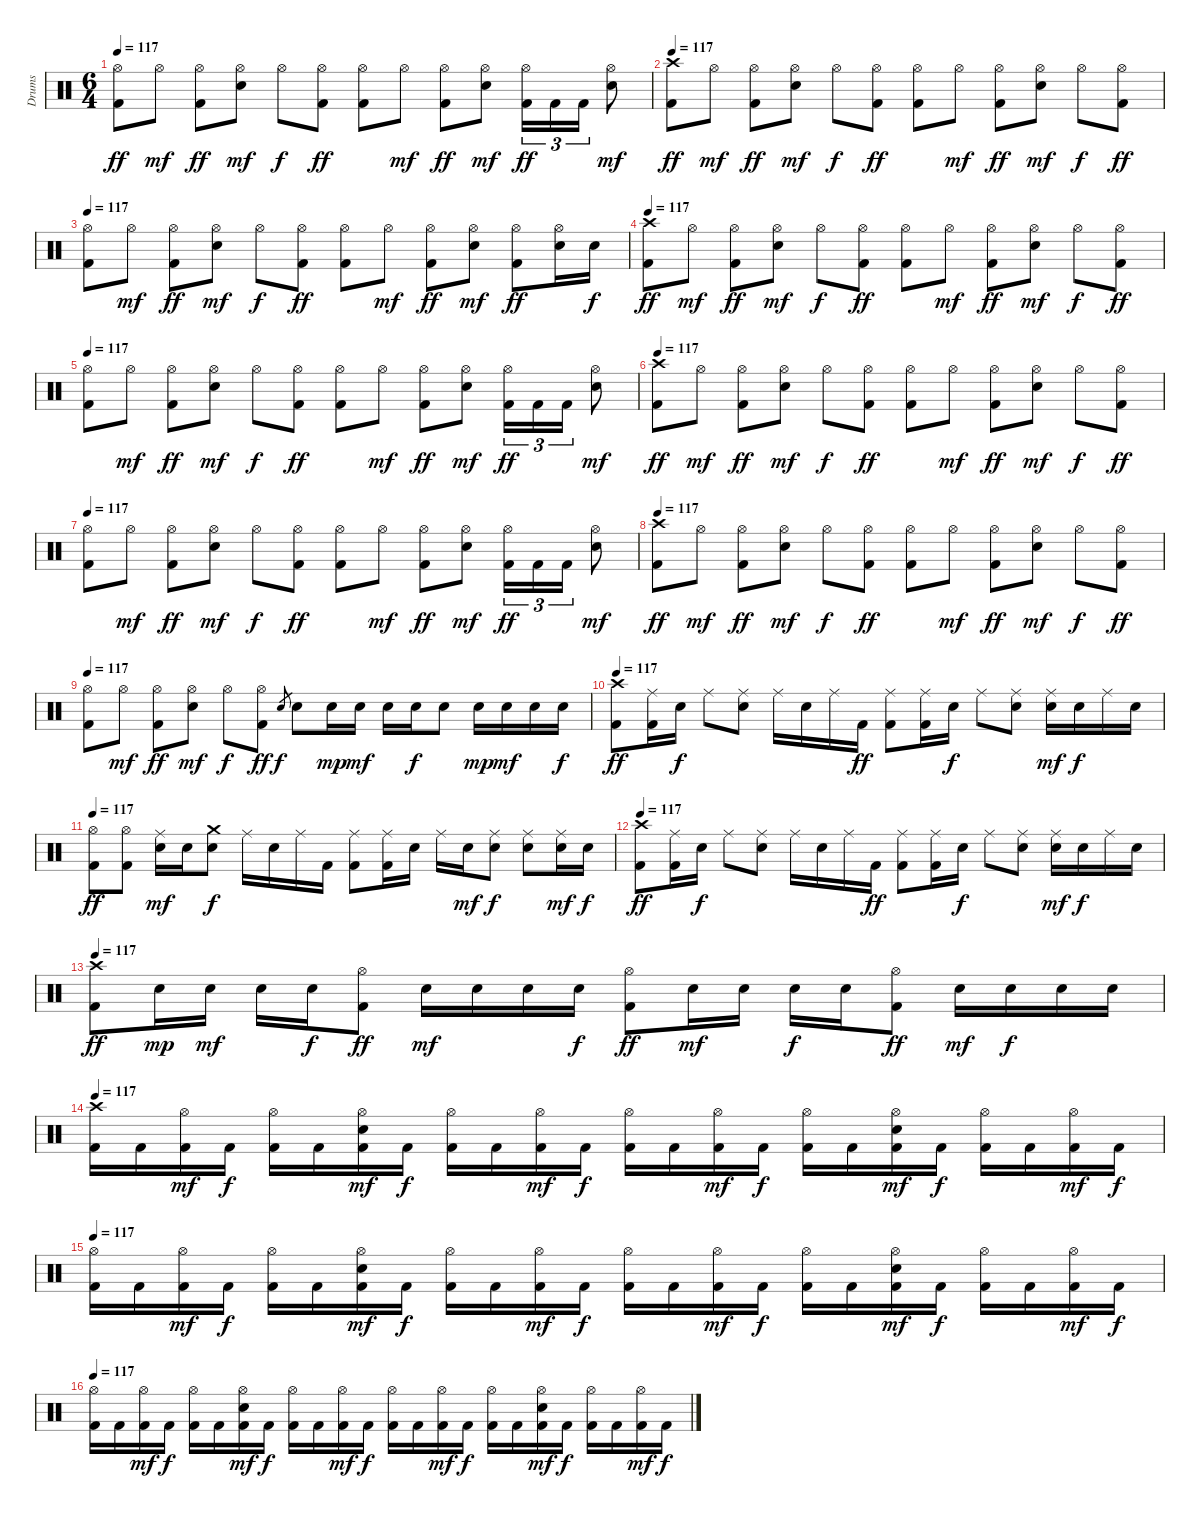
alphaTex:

\track ("Drums" "Drums") {instrument percussion}
\staff {score}
\articulation defaults
\ts (6 4)
\tempo 117
\clef neutral
\ks c
("Hi-Hat (open)" "Kick (hit) 2").8{dy ff} "Hi-Hat (open)".8{dy mf} ("Hi-Hat (open)" "Kick (hit) 2").8{dy ff} ("Hi-Hat (open)" "Electric Snare (hit)").8{dy mf} "Hi-Hat (open)".8{dy f} ("Hi-Hat (open)" "Kick (hit) 2").8{dy ff} ("Hi-Hat (open)" "Kick (hit) 2").8 "Hi-Hat (open)".8{dy mf} ("Hi-Hat (open)" "Kick (hit) 2").8{dy ff} ("Hi-Hat (open)" "Electric Snare (hit)").8{dy mf} ("Hi-Hat (open)" "Kick (hit) 2").16{tu (3 2) dy ff} "Kick (hit) 2".16{tu (3 2)} "Kick (hit) 2".16{tu (3 2)} ("Hi-Hat (open)" "Electric Snare (hit)").8{dy mf} |
\tempo 117
("Crash high (hit)" "Kick (hit) 2").8{dy ff} "Hi-Hat (open)".8{dy mf} ("Hi-Hat (open)" "Kick (hit) 2").8{dy ff} ("Hi-Hat (open)" "Electric Snare (hit)").8{dy mf} "Hi-Hat (open)".8{dy f} ("Hi-Hat (open)" "Kick (hit) 2").8{dy ff} ("Hi-Hat (open)" "Kick (hit) 2").8 "Hi-Hat (open)".8{dy mf} ("Hi-Hat (open)" "Kick (hit) 2").8{dy ff} ("Hi-Hat (open)" "Electric Snare (hit)").8{dy mf} "Hi-Hat (open)".8{dy f} ("Hi-Hat (open)" "Kick (hit) 2").8{dy ff} |
\tempo 117
("Hi-Hat (open)" "Kick (hit) 2").8 "Hi-Hat (open)".8{dy mf} ("Hi-Hat (open)" "Kick (hit) 2").8{dy ff} ("Hi-Hat (open)" "Electric Snare (hit)").8{dy mf} "Hi-Hat (open)".8{dy f} ("Hi-Hat (open)" "Kick (hit) 2").8{dy ff} ("Hi-Hat (open)" "Kick (hit) 2").8 "Hi-Hat (open)".8{dy mf} ("Hi-Hat (open)" "Kick (hit) 2").8{dy ff} ("Hi-Hat (open)" "Electric Snare (hit)").8{dy mf} ("Hi-Hat (open)" "Kick (hit) 2").8{dy ff} ("Hi-Hat (open)" "Electric Snare (hit)").16 "Electric Snare (hit)".16{dy f} |
\tempo 117
("Crash high (hit)" "Kick (hit) 2").8{dy ff} "Hi-Hat (open)".8{dy mf} ("Hi-Hat (open)" "Kick (hit) 2").8{dy ff} ("Hi-Hat (open)" "Electric Snare (hit)").8{dy mf} "Hi-Hat (open)".8{dy f} ("Hi-Hat (open)" "Kick (hit) 2").8{dy ff} ("Hi-Hat (open)" "Kick (hit) 2").8 "Hi-Hat (open)".8{dy mf} ("Hi-Hat (open)" "Kick (hit) 2").8{dy ff} ("Hi-Hat (open)" "Electric Snare (hit)").8{dy mf} "Hi-Hat (open)".8{dy f} ("Hi-Hat (open)" "Kick (hit) 2").8{dy ff} |
\tempo 117
("Hi-Hat (open)" "Kick (hit) 2").8 "Hi-Hat (open)".8{dy mf} ("Hi-Hat (open)" "Kick (hit) 2").8{dy ff} ("Hi-Hat (open)" "Electric Snare (hit)").8{dy mf} "Hi-Hat (open)".8{dy f} ("Hi-Hat (open)" "Kick (hit) 2").8{dy ff} ("Hi-Hat (open)" "Kick (hit) 2").8 "Hi-Hat (open)".8{dy mf} ("Hi-Hat (open)" "Kick (hit) 2").8{dy ff} ("Hi-Hat (open)" "Electric Snare (hit)").8{dy mf} ("Hi-Hat (open)" "Kick (hit) 2").16{tu (3 2) dy ff} "Kick (hit) 2".16{tu (3 2)} "Kick (hit) 2".16{tu (3 2)} ("Hi-Hat (open)" "Electric Snare (hit)").8{dy mf} |
\tempo 117
("Crash high (hit)" "Kick (hit) 2").8{dy ff} "Hi-Hat (open)".8{dy mf} ("Hi-Hat (open)" "Kick (hit) 2").8{dy ff} ("Hi-Hat (open)" "Electric Snare (hit)").8{dy mf} "Hi-Hat (open)".8{dy f} ("Hi-Hat (open)" "Kick (hit) 2").8{dy ff} ("Hi-Hat (open)" "Kick (hit) 2").8 "Hi-Hat (open)".8{dy mf} ("Hi-Hat (open)" "Kick (hit) 2").8{dy ff} ("Hi-Hat (open)" "Electric Snare (hit)").8{dy mf} "Hi-Hat (open)".8{dy f} ("Hi-Hat (open)" "Kick (hit) 2").8{dy ff} |
\tempo 117
("Hi-Hat (open)" "Kick (hit) 2").8 "Hi-Hat (open)".8{dy mf} ("Hi-Hat (open)" "Kick (hit) 2").8{dy ff} ("Hi-Hat (open)" "Electric Snare (hit)").8{dy mf} "Hi-Hat (open)".8{dy f} ("Hi-Hat (open)" "Kick (hit) 2").8{dy ff} ("Hi-Hat (open)" "Kick (hit) 2").8 "Hi-Hat (open)".8{dy mf} ("Hi-Hat (open)" "Kick (hit) 2").8{dy ff} ("Hi-Hat (open)" "Electric Snare (hit)").8{dy mf} ("Hi-Hat (open)" "Kick (hit) 2").16{tu (3 2) dy ff} "Kick (hit) 2".16{tu (3 2)} "Kick (hit) 2".16{tu (3 2)} ("Hi-Hat (open)" "Electric Snare (hit)").8{dy mf} |
\tempo 117
("Crash high (hit)" "Kick (hit) 2").8{dy ff} "Hi-Hat (open)".8{dy mf} ("Hi-Hat (open)" "Kick (hit) 2").8{dy ff} ("Hi-Hat (open)" "Electric Snare (hit)").8{dy mf} "Hi-Hat (open)".8{dy f} ("Hi-Hat (open)" "Kick (hit) 2").8{dy ff} ("Hi-Hat (open)" "Kick (hit) 2").8 "Hi-Hat (open)".8{dy mf} ("Hi-Hat (open)" "Kick (hit) 2").8{dy ff} ("Hi-Hat (open)" "Electric Snare (hit)").8{dy mf} "Hi-Hat (open)".8{dy f} ("Hi-Hat (open)" "Kick (hit) 2").8{dy ff} |
\tempo 117
("Hi-Hat (open)" "Kick (hit) 2").8 "Hi-Hat (open)".8{dy mf} ("Hi-Hat (open)" "Kick (hit) 2").8{dy ff} ("Hi-Hat (open)" "Electric Snare (hit)").8{dy mf} "Hi-Hat (open)".8{dy f} ("Hi-Hat (open)" "Kick (hit) 2").8{dy ff} "Electric Snare (hit)".8{gr dy f} "Electric Snare (hit)".8 "Electric Snare (hit)".16{dy mp} "Electric Snare (hit)".16{dy mf} "Electric Snare (hit)".16 "Electric Snare (hit)".16{dy f} "Electric Snare (hit)".8 "Electric Snare (hit)".16{dy mp} "Electric Snare (hit)".16{dy mf} "Electric Snare (hit)".16 "Electric Snare (hit)".16{dy f} |
\tempo 117
("Crash high (hit)" "Kick (hit) 2").8{dy ff} ("Ride (middle)" "Kick (hit) 2").16 "Electric Snare (hit)".16{dy f} "Ride (middle)".8 ("Ride (middle)" "Electric Snare (hit)").8 "Ride (middle)".16 "Electric Snare (hit)".16 "Ride (middle)".16 "Kick (hit) 2".16{dy ff} ("Ride (middle)" "Kick (hit) 2").8 ("Ride (middle)" "Kick (hit) 2").16 "Electric Snare (hit)".16{dy f} "Ride (middle)".8 ("Ride (middle)" "Electric Snare (hit)").8 ("Ride (middle)" "Electric Snare (hit)").16{dy mf} "Electric Snare (hit)".16{dy f} "Ride (middle)".16 "Electric Snare (hit)".16 |
\tempo 117
("Hi-Hat (open)" "Kick (hit) 2").8{dy ff} ("Hi-Hat (open)" "Kick (hit) 2").8 ("Ride (middle)" "Electric Snare (hit)").16{dy mf} "Electric Snare (hit)".16 ("Crash medium (hit)" "Electric Snare (hit)").8{dy f} "Ride (middle)".16 "Electric Snare (hit)".16 "Ride (middle)".16 "Kick (hit) 2".16 ("Ride (middle)" "Kick (hit) 2").8 ("Ride (middle)" "Kick (hit) 2").16 "Electric Snare (hit)".16 "Ride (middle)".16 "Electric Snare (hit)".16{dy mf} ("Ride (middle)" "Electric Snare (hit)").8{dy f} ("Ride (middle)" "Electric Snare (hit)").8 ("Ride (middle)" "Electric Snare (hit)").16{dy mf} "Electric Snare (hit)".16{dy f} |
\tempo 117
("Crash high (hit)" "Kick (hit) 2").8{dy ff} ("Ride (middle)" "Kick (hit) 2").16 "Electric Snare (hit)".16{dy f} "Ride (middle)".8 ("Ride (middle)" "Electric Snare (hit)").8 "Ride (middle)".16 "Electric Snare (hit)".16 "Ride (middle)".16 "Kick (hit) 2".16{dy ff} ("Ride (middle)" "Kick (hit) 2").8 ("Ride (middle)" "Kick (hit) 2").16 "Electric Snare (hit)".16{dy f} "Ride (middle)".8 ("Ride (middle)" "Electric Snare (hit)").8 ("Ride (middle)" "Electric Snare (hit)").16{dy mf} "Electric Snare (hit)".16{dy f} "Ride (middle)".16 "Electric Snare (hit)".16 |
\tempo 117
("Crash high (hit)" "Kick (hit) 2").8{dy ff} "Electric Snare (hit)".16{dy mp} "Electric Snare (hit)".16{dy mf} "Electric Snare (hit)".16 "Electric Snare (hit)".16{dy f} ("Hi-Hat (open)" "Kick (hit) 2").8{dy ff} "Electric Snare (hit)".16{dy mf} "Electric Snare (hit)".16 "Electric Snare (hit)".16 "Electric Snare (hit)".16{dy f} ("Hi-Hat (open)" "Kick (hit) 2").8{dy ff} "Electric Snare (hit)".16{dy mf} "Electric Snare (hit)".16 "Electric Snare (hit)".16{dy f} "Electric Snare (hit)".16 ("Hi-Hat (open)" "Kick (hit) 2").8{dy ff} "Electric Snare (hit)".16{dy mf} "Electric Snare (hit)".16{dy f} "Electric Snare (hit)".16 "Electric Snare (hit)".16 |
\tempo 117
("Crash high (hit)" "Kick (hit) 2").16 "Kick (hit) 2".16 ("Hi-Hat (open)" "Kick (hit) 2").16{dy mf} "Kick (hit) 2".16{dy f} ("Hi-Hat (open)" "Kick (hit) 2").16 "Kick (hit) 2".16 ("Hi-Hat (open)" "Electric Snare (hit)" "Kick (hit) 2").16{dy mf} "Kick (hit) 2".16{dy f} ("Hi-Hat (open)" "Kick (hit) 2").16 "Kick (hit) 2".16 ("Hi-Hat (open)" "Kick (hit) 2").16{dy mf} "Kick (hit) 2".16{dy f} ("Hi-Hat (open)" "Kick (hit) 2").16 "Kick (hit) 2".16 ("Hi-Hat (open)" "Kick (hit) 2").16{dy mf} "Kick (hit) 2".16{dy f} ("Hi-Hat (open)" "Kick (hit) 2").16 "Kick (hit) 2".16 ("Hi-Hat (open)" "Electric Snare (hit)" "Kick (hit) 2").16{dy mf} "Kick (hit) 2".16{dy f} ("Hi-Hat (open)" "Kick (hit) 2").16 "Kick (hit) 2".16 ("Hi-Hat (open)" "Kick (hit) 2").16{dy mf} "Kick (hit) 2".16{dy f} |
\tempo 117
("Hi-Hat (open)" "Kick (hit) 2").16 "Kick (hit) 2".16 ("Hi-Hat (open)" "Kick (hit) 2").16{dy mf} "Kick (hit) 2".16{dy f} ("Hi-Hat (open)" "Kick (hit) 2").16 "Kick (hit) 2".16 ("Hi-Hat (open)" "Electric Snare (hit)" "Kick (hit) 2").16{dy mf} "Kick (hit) 2".16{dy f} ("Hi-Hat (open)" "Kick (hit) 2").16 "Kick (hit) 2".16 ("Hi-Hat (open)" "Kick (hit) 2").16{dy mf} "Kick (hit) 2".16{dy f} ("Hi-Hat (open)" "Kick (hit) 2").16 "Kick (hit) 2".16 ("Hi-Hat (open)" "Kick (hit) 2").16{dy mf} "Kick (hit) 2".16{dy f} ("Hi-Hat (open)" "Kick (hit) 2").16 "Kick (hit) 2".16 ("Hi-Hat (open)" "Electric Snare (hit)" "Kick (hit) 2").16{dy mf} "Kick (hit) 2".16{dy f} ("Hi-Hat (open)" "Kick (hit) 2").16 "Kick (hit) 2".16 ("Hi-Hat (open)" "Kick (hit) 2").16{dy mf} "Kick (hit) 2".16{dy f} |
\tempo 117
("Hi-Hat (open)" "Kick (hit) 2").16 "Kick (hit) 2".16 ("Hi-Hat (open)" "Kick (hit) 2").16{dy mf} "Kick (hit) 2".16{dy f} ("Hi-Hat (open)" "Kick (hit) 2").16 "Kick (hit) 2".16 ("Hi-Hat (open)" "Electric Snare (hit)" "Kick (hit) 2").16{dy mf} "Kick (hit) 2".16{dy f} ("Hi-Hat (open)" "Kick (hit) 2").16 "Kick (hit) 2".16 ("Hi-Hat (open)" "Kick (hit) 2").16{dy mf} "Kick (hit) 2".16{dy f} ("Hi-Hat (open)" "Kick (hit) 2").16 "Kick (hit) 2".16 ("Hi-Hat (open)" "Kick (hit) 2").16{dy mf} "Kick (hit) 2".16{dy f} ("Hi-Hat (open)" "Kick (hit) 2").16 "Kick (hit) 2".16 ("Hi-Hat (open)" "Electric Snare (hit)" "Kick (hit) 2").16{dy mf} "Kick (hit) 2".16{dy f} ("Hi-Hat (open)" "Kick (hit) 2").16 "Kick (hit) 2".16 ("Hi-Hat (open)" "Kick (hit) 2").16{dy mf} "Kick (hit) 2".16{dy f}
